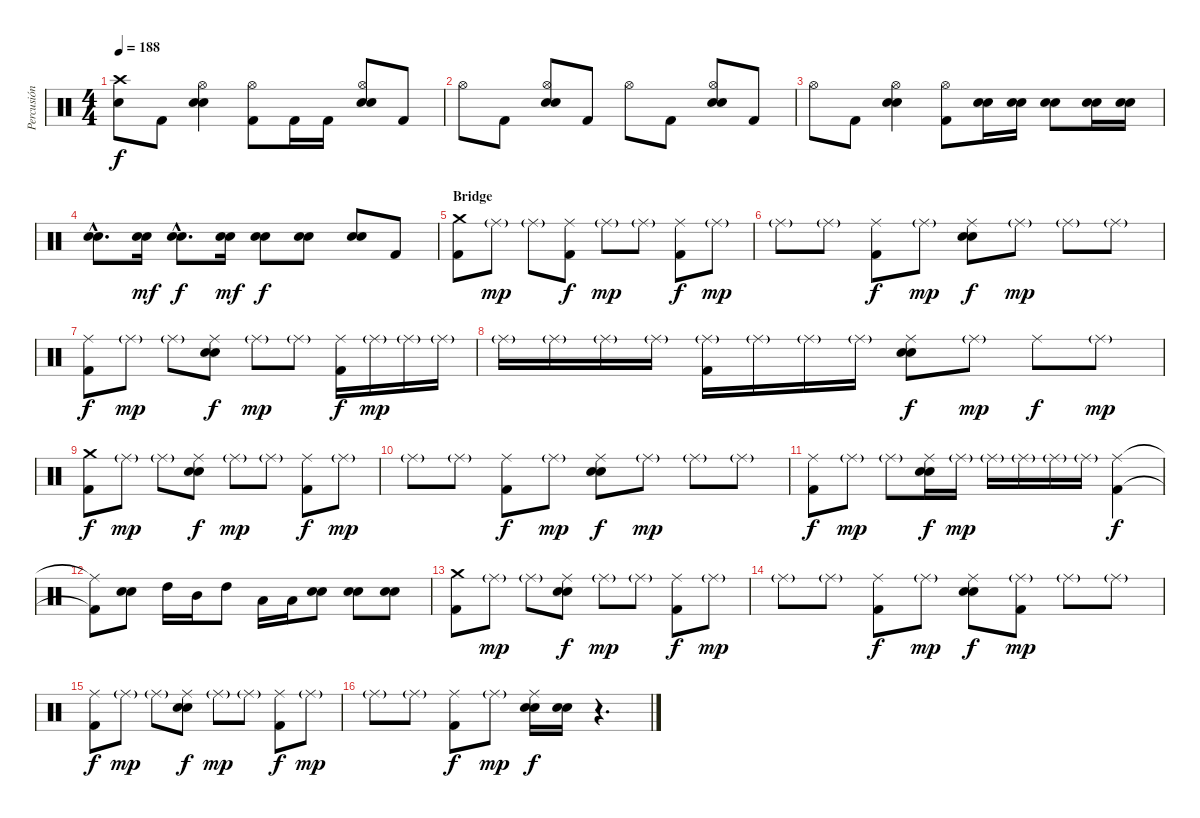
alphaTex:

\track ("Percusión" "Percusión") {instrument percussion}
\staff {score}
\articulation defaults
\ts (4 4)
\tempo 188
\clef neutral
\ks c
("Crash high (hit)"{t} "Snare (hit)"{t}).8{dy f} "Kick (hit) 2".8 ("Hi-Hat (open)" "Electric Snare (hit)" "Snare (hit) 2").4 ("Hi-Hat (open)" "Kick (hit) 2").8 "Kick (hit) 2".16 "Kick (hit) 2".16 ("Hi-Hat (open)" "Electric Snare (hit)" "Snare (hit) 2").8 "Kick (hit) 2".8 |
"Hi-Hat (open)".8 "Kick (hit) 2".8 ("Hi-Hat (open)" "Electric Snare (hit)" "Snare (hit) 2").8 "Kick (hit) 2".8 "Hi-Hat (open)".8 "Kick (hit) 2".8 ("Hi-Hat (open)" "Electric Snare (hit)" "Snare (hit) 2").8 "Kick (hit) 2".8 |
"Hi-Hat (open)".8 "Kick (hit) 2".8 ("Hi-Hat (open)" "Electric Snare (hit)" "Snare (hit) 2").4 ("Hi-Hat (open)" "Kick (hit) 2").8 ("Electric Snare (hit)" "Snare (hit) 2").16 ("Electric Snare (hit)" "Snare (hit) 2").16 ("Electric Snare (hit)" "Snare (hit) 2").8 ("Electric Snare (hit)" "Snare (hit) 2").16 ("Electric Snare (hit)" "Snare (hit) 2").16 |
("Electric Snare (hit)"{hac} "Snare (hit) 2"{hac}).8{d} ("Electric Snare (hit)" "Snare (hit) 2").16{dy mf} ("Electric Snare (hit)"{hac} "Snare (hit) 2"{hac}).8{d dy f} ("Electric Snare (hit)" "Snare (hit) 2").16{dy mf} ("Electric Snare (hit)" "Snare (hit) 2").8{dy f} ("Electric Snare (hit)" "Snare (hit) 2").8 ("Electric Snare (hit)" "Snare (hit) 2").8 "Kick (hit) 2".8 |
\section ("" "Bridge")
("Crash medium (hit)" "Kick (hit) 2").8 "Ride (middle)"{g}.8{dy mp} "Ride (middle)"{g}.8 ("Ride (middle)" "Kick (hit) 2").8{dy f} "Ride (middle)"{g}.8{dy mp} "Ride (middle)"{g}.8 ("Ride (middle)" "Kick (hit) 2").8{dy f} "Ride (middle)"{g}.8{dy mp} |
"Ride (middle)"{g}.8 "Ride (middle)"{g}.8 ("Ride (middle)" "Kick (hit) 2").8{dy f} "Ride (middle)"{g}.8{dy mp} ("Ride (middle)" "Electric Snare (hit)" "Snare (hit) 2").8{dy f} "Ride (middle)"{g}.8{dy mp} "Ride (middle)"{g}.8 "Ride (middle)"{g}.8 |
("Ride (middle)" "Kick (hit) 2").8{dy f} "Ride (middle)"{g}.8{dy mp} "Ride (middle)"{g}.8 ("Ride (middle)" "Electric Snare (hit)" "Snare (hit) 2").8{dy f} "Ride (middle)"{g}.8{dy mp} "Ride (middle)"{g}.8 ("Ride (middle)" "Kick (hit) 2").16{dy f} "Ride (middle)"{g}.16{dy mp} "Ride (middle)"{g}.16 "Ride (middle)"{g}.16 |
"Ride (middle)"{g}.16 "Ride (middle)"{g}.16 "Ride (middle)"{g}.16 "Ride (middle)"{g}.16 ("Ride (middle)"{g} "Kick (hit) 2").16 "Ride (middle)"{g}.16 "Ride (middle)"{g}.16 "Ride (middle)"{g}.16 ("Ride (middle)" "Electric Snare (hit)" "Snare (hit) 2").8{dy f} "Ride (middle)"{g}.8{dy mp} "Ride (middle)".8{dy f} "Ride (middle)"{g}.8{dy mp} |
("Crash medium (hit)" "Kick (hit) 2").8{dy f} "Ride (middle)"{g}.8{dy mp} "Ride (middle)"{g}.8 ("Ride (middle)" "Electric Snare (hit)" "Snare (hit) 2").8{dy f} "Ride (middle)"{g}.8{dy mp} "Ride (middle)"{g}.8 ("Ride (middle)" "Kick (hit) 2").8{dy f} "Ride (middle)"{g}.8{dy mp} |
"Ride (middle)"{g}.8 "Ride (middle)"{g}.8 ("Ride (middle)" "Kick (hit) 2").8{dy f} "Ride (middle)"{g}.8{dy mp} ("Ride (middle)" "Electric Snare (hit)" "Snare (hit) 2").8{dy f} "Ride (middle)"{g}.8{dy mp} "Ride (middle)"{g}.8 "Ride (middle)"{g}.8 |
("Ride (middle)" "Kick (hit) 2").8{dy f} "Ride (middle)"{g}.8{dy mp} "Ride (middle)"{g}.8 ("Ride (middle)" "Electric Snare (hit)" "Snare (hit) 2").16{dy f} "Ride (middle)"{g}.16{dy mp} "Ride (middle)"{g}.16 "Ride (middle)"{g}.16 "Ride (middle)"{g}.16 "Ride (middle)"{g}.16 ("Ride (middle)" "Kick (hit) 2").4{dy f} |
("Ride (middle)"{t} "Kick (hit) 2"{t}).8 ("Electric Snare (hit)" "Snare (hit) 2").8 "High Tom (hit)".16 "Mid Tom (hit)".16 "High Tom (hit)".8 "Low Tom (hit)".16 "Low Tom (hit)".16 ("Electric Snare (hit)" "Snare (hit) 2").8 ("Electric Snare (hit)" "Snare (hit) 2").8 ("Electric Snare (hit)" "Snare (hit) 2").8 |
("Crash medium (hit)" "Kick (hit) 2").8 "Ride (middle)"{g}.8{dy mp} "Ride (middle)"{g}.8 ("Ride (middle)" "Electric Snare (hit)" "Snare (hit) 2").8{dy f} "Ride (middle)"{g}.8{dy mp} "Ride (middle)"{g}.8 ("Ride (middle)" "Kick (hit) 2").8{dy f} "Ride (middle)"{g}.8{dy mp} |
"Ride (middle)"{g}.8 "Ride (middle)"{g}.8 ("Ride (middle)" "Kick (hit) 2").8{dy f} "Ride (middle)"{g}.8{dy mp} ("Ride (middle)" "Electric Snare (hit)" "Snare (hit) 2").8{dy f} ("Ride (middle)"{g} "Kick (hit) 2").8{dy mp} "Ride (middle)"{g}.8 "Ride (middle)"{g}.8 |
("Ride (middle)" "Kick (hit) 2").8{dy f} "Ride (middle)"{g}.8{dy mp} "Ride (middle)"{g}.8 ("Ride (middle)" "Electric Snare (hit)" "Snare (hit) 2").8{dy f} "Ride (middle)"{g}.8{dy mp} "Ride (middle)"{g}.8 ("Ride (middle)" "Kick (hit) 2").8{dy f} "Ride (middle)"{g}.8{dy mp} |
"Ride (middle)"{g}.8 "Ride (middle)"{g}.8 ("Ride (middle)" "Kick (hit) 2").8{dy f} "Ride (middle)"{g}.8{dy mp} ("Ride (middle)" "Electric Snare (hit)" "Snare (hit) 2").16{dy f} ("Electric Snare (hit)" "Snare (hit) 2").16 r.4{d}
